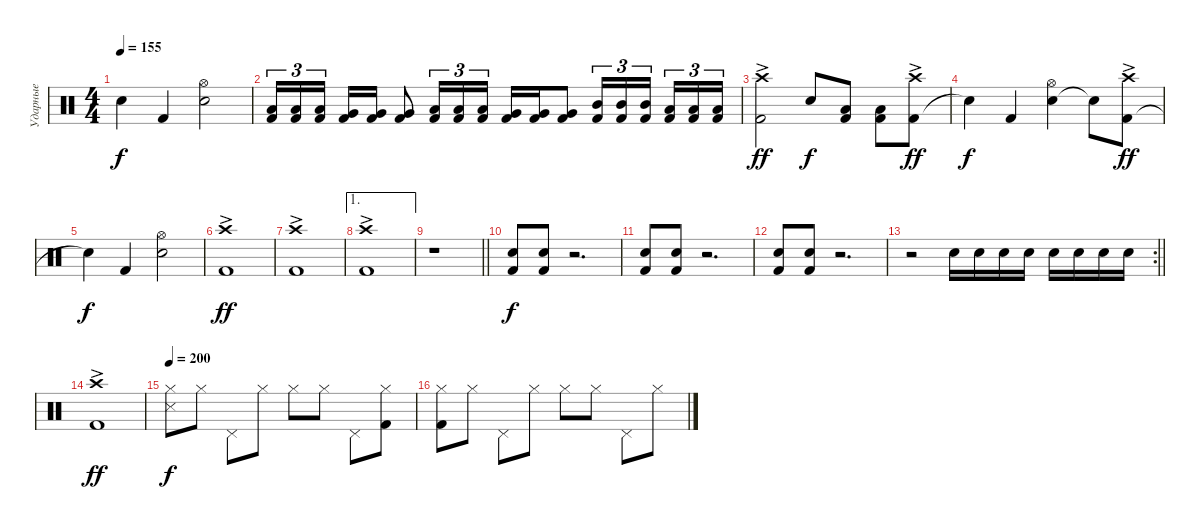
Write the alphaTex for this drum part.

\track ("Ударные" "Ударные") {instrument percussion}
\staff
\articulation defaults
\ts (4 4)
\tempo 155
\clef neutral
\ks c "Snare (hit)"{t}.4{dy f} "Kick (hit) 2".4
("Snare (hit) 2" "Hi-Hat (open)").2 |
("Kick (hit) 2" "Low Tom (hit)").16{tu (3 2)} ("Kick (hit) 2" "Low Tom (hit)").16{tu (3 2)} ("Kick (hit) 2" "Low Tom (hit)").16{tu (3 2) beam splitsecondary} ("Kick (hit) 2" "Very Low Tom (hit)").16 ("Kick (hit) 2" "Very Low Tom (hit)").16 ("Kick (hit) 2" "Very Low Tom (hit)").8 ("Kick (hit) 2" "Low Tom (hit)").16{tu (3 2)} ("Kick (hit) 2" "Low Tom (hit)").16{tu (3 2)} ("Kick (hit) 2" "Low Tom (hit)").16{tu (3 2)} ("Kick (hit) 2" "Very Low Tom (hit)").16 ("Kick (hit) 2" "Very Low Tom (hit)").16 ("Kick (hit) 2" "Very Low Tom (hit)").8 ("Kick (hit) 2" "Mid Tom (hit)").16{tu (3 2)} ("Kick (hit) 2" "Mid Tom (hit)").16{tu (3 2)} ("Kick (hit) 2" "Mid Tom (hit)").16{tu (3 2) beam splitsecondary} ("Kick (hit) 2" "Low Tom (hit)").16{tu (3 2)} ("Kick (hit) 2" "Low Tom (hit)").16{tu (3 2)} ("Kick (hit) 2" "Low Tom (hit)").16{tu (3 2)} |
("Kick (hit) 2" "Crash high (hit)"{ac}).2{dy ff} "Snare (hit) 2".8{dy f} ("Kick (hit) 2" "Low Tom (hit)").8 ("Kick (hit) 2" "Low Tom (hit)").8 ("Kick (hit) 2" "Crash high (hit)"{ac}).8{dy ff} |
"Snare (hit)"{t}.4{dy f} "Kick (hit) 2".4 ("Snare (hit) 2" "Hi-Hat (open)").4 "Snare (hit)"{t}.8 ("Kick (hit) 2" "Crash high (hit)"{ac}).8{dy ff} |
"Snare (hit)"{t}.4{dy f} "Kick (hit) 2".4 ("Snare (hit) 2" "Hi-Hat (open)").2 |
("Kick (hit) 2" "Crash high (hit)"{ac}).1{dy ff} |
("Kick (hit) 2" "Crash high (hit)"{ac}).1 |
\ae 1
("Kick (hit) 2" "Crash high (hit)"{ac}).1 |
\barLineRight lightlight
r.1 |
("Kick (hit) 2" "Snare (hit) 2").8{dy f} ("Kick (hit) 2" "Snare (hit) 2").8 r.2{d} |
("Kick (hit) 2" "Snare (hit) 2").8 ("Kick (hit) 2" "Snare (hit) 2").8 r.2{d} |
("Kick (hit) 2" "Snare (hit) 2").8 ("Kick (hit) 2" "Snare (hit) 2").8 r.2{d} |
\rc 2
\barLineRight lightlight
r.2 "Snare (hit) 2".16 "Snare (hit) 2".16 "Snare (hit) 2".16 "Snare (hit) 2".16 "Snare (hit) 2".16 "Snare (hit) 2".16 "Snare (hit) 2".16 "Snare (hit) 2".16 |
("Kick (hit) 2" "Crash high (hit)"{ac}).1{dy ff} |
\tempo 200
("Snare (side stick) 3" "Hi-Hat (closed)").8{dy f} "Hi-Hat (closed)".8 "Pedal Hi-Hat (hit)".8 "Hi-Hat (closed)".8 "Hi-Hat (closed)".8 "Hi-Hat (closed)".8 "Pedal Hi-Hat (hit)".8 ("Kick (hit) 2" "Hi-Hat (closed)").8 |
("Kick (hit) 2" "Hi-Hat (closed)").8 "Hi-Hat (closed)".8 "Pedal Hi-Hat (hit)".8 "Hi-Hat (closed)".8 "Hi-Hat (closed)".8 "Hi-Hat (closed)".8 "Pedal Hi-Hat (hit)".8 "Hi-Hat (closed)".8
